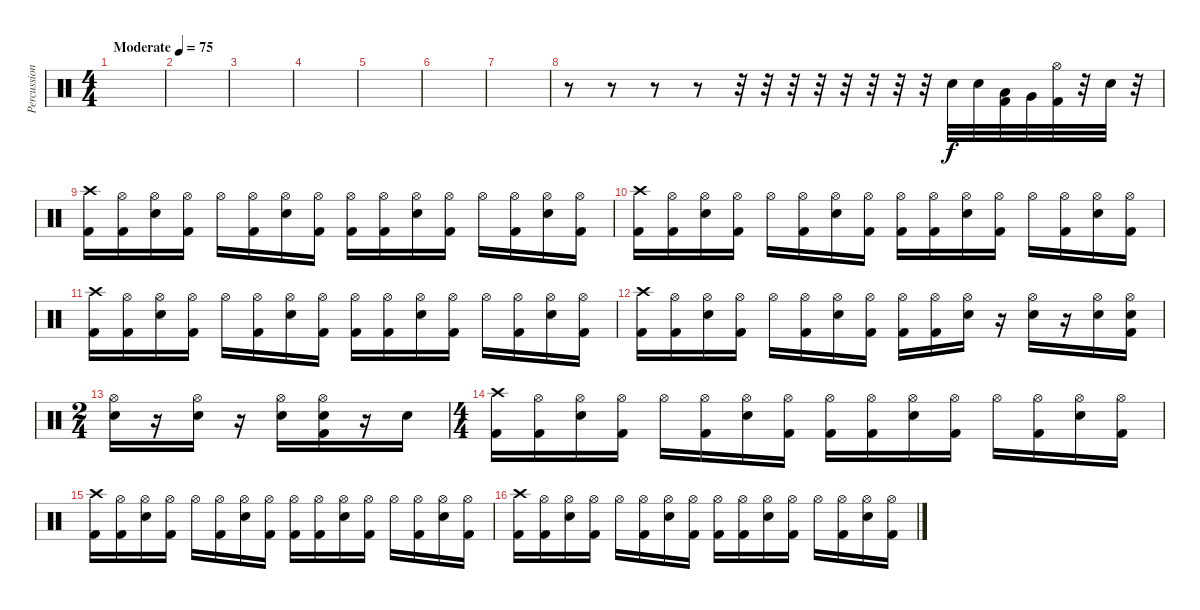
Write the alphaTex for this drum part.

\track ("Percussion" "Percussion") {instrument percussion}
\staff {score}
\articulation defaults
\ts (4 4)
\tempo (75 "Moderate")
\clef neutral
\ks c
|
|
|
|
|
|
|
r.8 r.8 r.8 r.8 r.32 r.32 r.32 r.32 r.32 r.32 r.32 r.32 "Electric Snare (hit)".32 "Electric Snare (hit)".32 ("Low Tom (hit)" "Kick (hit) 2").32 "Very Low Tom (hit)".32 ("Hi-Hat (open)" "Kick (hit) 2").32 r.32 "Electric Snare (hit)".32 r.32 |
("Crash high (hit)" "Kick (hit) 2").16 ("Hi-Hat (open)" "Kick (hit) 2").16 ("Hi-Hat (open)" "Electric Snare (hit)").16 ("Hi-Hat (open)" "Kick (hit) 2").16 "Hi-Hat (open)".16 ("Hi-Hat (open)" "Kick (hit) 2").16 ("Hi-Hat (open)" "Electric Snare (hit)").16 ("Hi-Hat (open)" "Kick (hit) 2").16 ("Hi-Hat (open)" "Kick (hit) 2").16 ("Hi-Hat (open)" "Kick (hit) 2").16 ("Hi-Hat (open)" "Electric Snare (hit)").16 ("Hi-Hat (open)" "Kick (hit) 2").16 "Hi-Hat (open)".16 ("Hi-Hat (open)" "Kick (hit) 2").16 ("Hi-Hat (open)" "Electric Snare (hit)").16 ("Hi-Hat (open)" "Kick (hit) 2").16 |
("Crash high (hit)" "Kick (hit) 2").16 ("Hi-Hat (open)" "Kick (hit) 2").16 ("Hi-Hat (open)" "Electric Snare (hit)").16 ("Hi-Hat (open)" "Kick (hit) 2").16 "Hi-Hat (open)".16 ("Hi-Hat (open)" "Kick (hit) 2").16 ("Hi-Hat (open)" "Electric Snare (hit)").16 ("Hi-Hat (open)" "Kick (hit) 2").16 ("Hi-Hat (open)" "Kick (hit) 2").16 ("Hi-Hat (open)" "Kick (hit) 2").16 ("Hi-Hat (open)" "Electric Snare (hit)").16 ("Hi-Hat (open)" "Kick (hit) 2").16 "Hi-Hat (open)".16 ("Hi-Hat (open)" "Kick (hit) 2").16 ("Hi-Hat (open)" "Electric Snare (hit)").16 ("Hi-Hat (open)" "Kick (hit) 2").16 |
("Crash high (hit)" "Kick (hit) 2").16 ("Hi-Hat (open)" "Kick (hit) 2").16 ("Hi-Hat (open)" "Electric Snare (hit)").16 ("Hi-Hat (open)" "Kick (hit) 2").16 "Hi-Hat (open)".16 ("Hi-Hat (open)" "Kick (hit) 2").16 ("Hi-Hat (open)" "Electric Snare (hit)").16 ("Hi-Hat (open)" "Kick (hit) 2").16 ("Hi-Hat (open)" "Kick (hit) 2").16 ("Hi-Hat (open)" "Kick (hit) 2").16 ("Hi-Hat (open)" "Electric Snare (hit)").16 ("Hi-Hat (open)" "Kick (hit) 2").16 "Hi-Hat (open)".16 ("Hi-Hat (open)" "Kick (hit) 2").16 ("Hi-Hat (open)" "Electric Snare (hit)").16 ("Hi-Hat (open)" "Kick (hit) 2").16 |
("Crash high (hit)" "Kick (hit) 2").16 ("Hi-Hat (open)" "Kick (hit) 2").16 ("Hi-Hat (open)" "Electric Snare (hit)").16 ("Hi-Hat (open)" "Kick (hit) 2").16 "Hi-Hat (open)".16 ("Hi-Hat (open)" "Kick (hit) 2").16 ("Hi-Hat (open)" "Electric Snare (hit)").16 ("Hi-Hat (open)" "Kick (hit) 2").16 ("Hi-Hat (open)" "Kick (hit) 2").16 ("Hi-Hat (open)" "Kick (hit) 2").16 ("Hi-Hat (open)" "Electric Snare (hit)").16 r.16 ("Hi-Hat (open)" "Electric Snare (hit)").16 r.16 ("Hi-Hat (open)" "Electric Snare (hit)").16 ("Hi-Hat (open)" "Electric Snare (hit)" "Kick (hit) 2").16 |
\ts (2 4)
("Hi-Hat (open)" "Electric Snare (hit)").16 r.16 ("Hi-Hat (open)" "Electric Snare (hit)").16 r.16 ("Hi-Hat (open)" "Electric Snare (hit)").16 ("Hi-Hat (open)" "Electric Snare (hit)" "Kick (hit) 2").16 r.16 "Electric Snare (hit)".16 |
\ts (4 4)
("Crash high (hit)" "Kick (hit) 2").16 ("Hi-Hat (open)" "Kick (hit) 2").16 ("Hi-Hat (open)" "Electric Snare (hit)").16 ("Hi-Hat (open)" "Kick (hit) 2").16 "Hi-Hat (open)".16 ("Hi-Hat (open)" "Kick (hit) 2").16 ("Hi-Hat (open)" "Electric Snare (hit)").16 ("Hi-Hat (open)" "Kick (hit) 2").16 ("Hi-Hat (open)" "Kick (hit) 2").16 ("Hi-Hat (open)" "Kick (hit) 2").16 ("Hi-Hat (open)" "Electric Snare (hit)").16 ("Hi-Hat (open)" "Kick (hit) 2").16 "Hi-Hat (open)".16 ("Hi-Hat (open)" "Kick (hit) 2").16 ("Hi-Hat (open)" "Electric Snare (hit)").16 ("Hi-Hat (open)" "Kick (hit) 2").16 |
("Crash high (hit)" "Kick (hit) 2").16 ("Hi-Hat (open)" "Kick (hit) 2").16 ("Hi-Hat (open)" "Electric Snare (hit)").16 ("Hi-Hat (open)" "Kick (hit) 2").16 "Hi-Hat (open)".16 ("Hi-Hat (open)" "Kick (hit) 2").16 ("Hi-Hat (open)" "Electric Snare (hit)").16 ("Hi-Hat (open)" "Kick (hit) 2").16 ("Hi-Hat (open)" "Kick (hit) 2").16 ("Hi-Hat (open)" "Kick (hit) 2").16 ("Hi-Hat (open)" "Electric Snare (hit)").16 ("Hi-Hat (open)" "Kick (hit) 2").16 "Hi-Hat (open)".16 ("Hi-Hat (open)" "Kick (hit) 2").16 ("Hi-Hat (open)" "Electric Snare (hit)").16 ("Hi-Hat (open)" "Kick (hit) 2").16 |
("Crash high (hit)" "Kick (hit) 2").16 ("Hi-Hat (open)" "Kick (hit) 2").16 ("Hi-Hat (open)" "Electric Snare (hit)").16 ("Hi-Hat (open)" "Kick (hit) 2").16 "Hi-Hat (open)".16 ("Hi-Hat (open)" "Kick (hit) 2").16 ("Hi-Hat (open)" "Electric Snare (hit)").16 ("Hi-Hat (open)" "Kick (hit) 2").16 ("Hi-Hat (open)" "Kick (hit) 2").16 ("Hi-Hat (open)" "Kick (hit) 2").16 ("Hi-Hat (open)" "Electric Snare (hit)").16 ("Hi-Hat (open)" "Kick (hit) 2").16 "Hi-Hat (open)".16 ("Hi-Hat (open)" "Kick (hit) 2").16 ("Hi-Hat (open)" "Electric Snare (hit)").16 ("Hi-Hat (open)" "Kick (hit) 2").16
